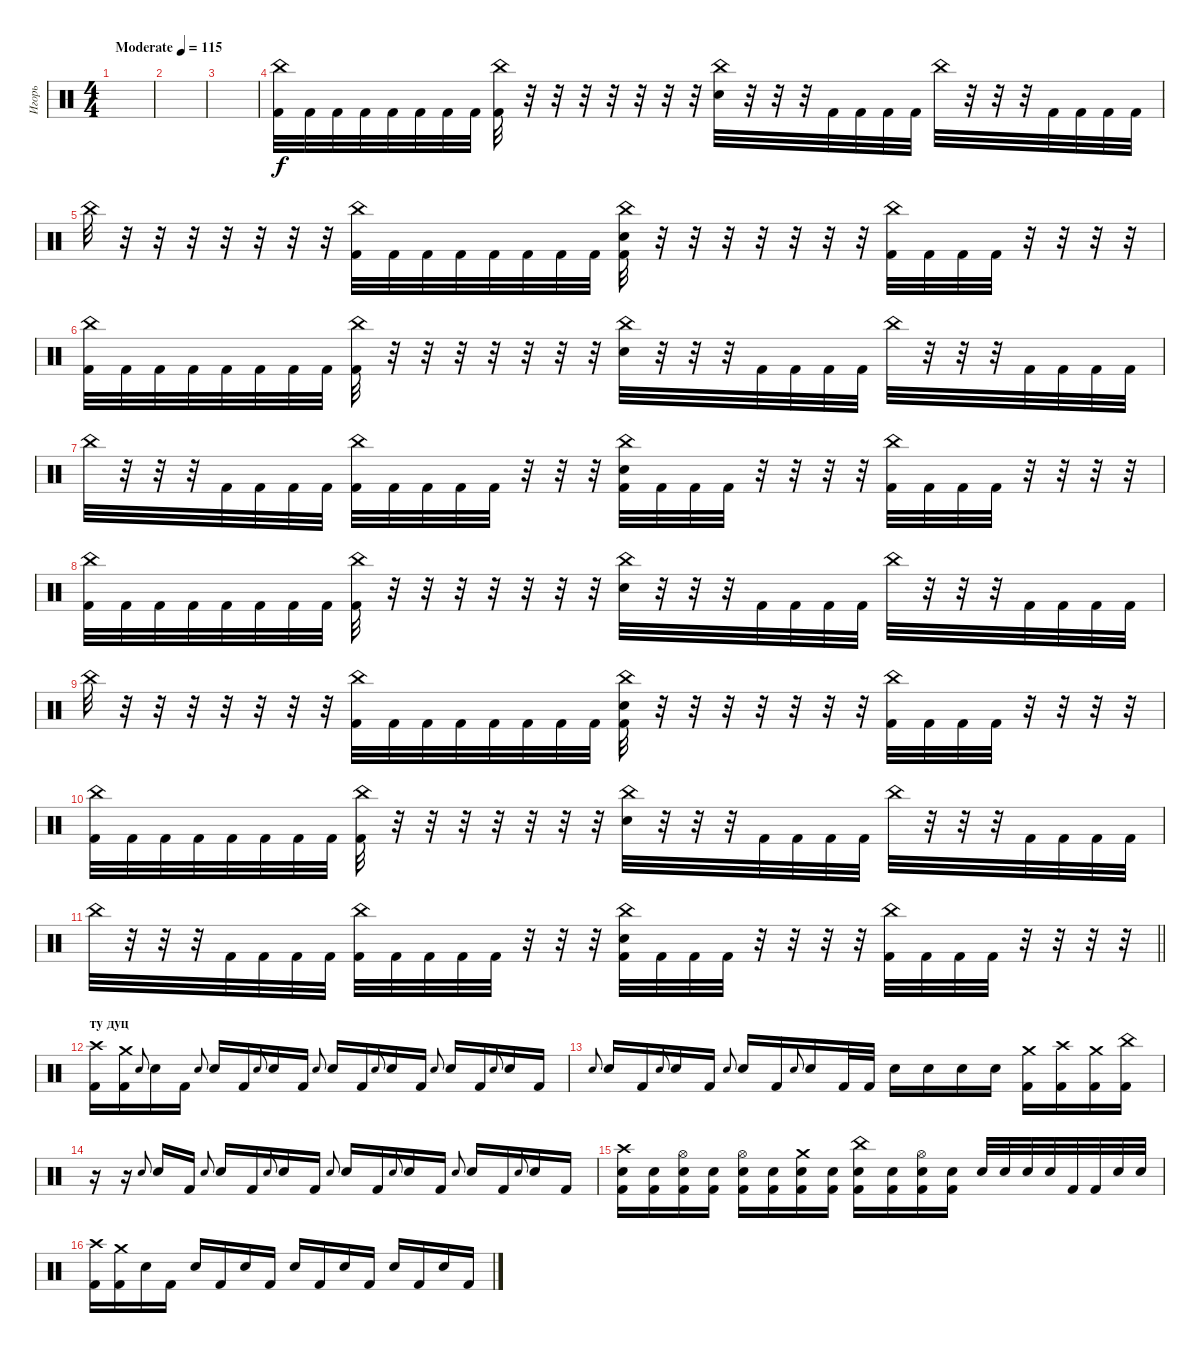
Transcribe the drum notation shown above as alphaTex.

\track ("Игорь" "Игорь") {instrument percussion}
\staff {score}
\articulation defaults
\ts (4 4)
\tempo (115 "Moderate")
\clef neutral
\ks c
|
|
|
("China (hit)" "Kick (hit) 2").32 "Kick (hit) 2".32 "Kick (hit) 2".32 "Kick (hit) 2".32 "Kick (hit) 2".32 "Kick (hit) 2".32 "Kick (hit) 2".32 "Kick (hit) 2".32 ("China (hit)" "Kick (hit) 2").32 r.32 r.32 r.32 r.32 r.32 r.32 r.32 ("China (hit)" "Electric Snare (hit)").32 r.32 r.32 r.32 "Kick (hit) 2".32 "Kick (hit) 2".32 "Kick (hit) 2".32 "Kick (hit) 2".32 "China (hit)".32 r.32 r.32 r.32 "Kick (hit) 2".32 "Kick (hit) 2".32 "Kick (hit) 2".32 "Kick (hit) 2".32 |
"China (hit)".32 r.32 r.32 r.32 r.32 r.32 r.32 r.32 ("China (hit)" "Kick (hit) 2").32 "Kick (hit) 2".32 "Kick (hit) 2".32 "Kick (hit) 2".32 "Kick (hit) 2".32 "Kick (hit) 2".32 "Kick (hit) 2".32 "Kick (hit) 2".32 ("China (hit)" "Electric Snare (hit)" "Kick (hit) 2").32 r.32 r.32 r.32 r.32 r.32 r.32 r.32 ("China (hit)" "Kick (hit) 2").32 "Kick (hit) 2".32 "Kick (hit) 2".32 "Kick (hit) 2".32 r.32 r.32 r.32 r.32 |
("China (hit)" "Kick (hit) 2").32 "Kick (hit) 2".32 "Kick (hit) 2".32 "Kick (hit) 2".32 "Kick (hit) 2".32 "Kick (hit) 2".32 "Kick (hit) 2".32 "Kick (hit) 2".32 ("China (hit)" "Kick (hit) 2").32 r.32 r.32 r.32 r.32 r.32 r.32 r.32 ("China (hit)" "Electric Snare (hit)").32 r.32 r.32 r.32 "Kick (hit) 2".32 "Kick (hit) 2".32 "Kick (hit) 2".32 "Kick (hit) 2".32 "China (hit)".32 r.32 r.32 r.32 "Kick (hit) 2".32 "Kick (hit) 2".32 "Kick (hit) 2".32 "Kick (hit) 2".32 |
"China (hit)".32 r.32 r.32 r.32 "Kick (hit) 2".32 "Kick (hit) 2".32 "Kick (hit) 2".32 "Kick (hit) 2".32 ("China (hit)" "Kick (hit) 2").32 "Kick (hit) 2".32 "Kick (hit) 2".32 "Kick (hit) 2".32 "Kick (hit) 2".32 r.32 r.32 r.32 ("China (hit)" "Electric Snare (hit)" "Kick (hit) 2").32 "Kick (hit) 2".32 "Kick (hit) 2".32 "Kick (hit) 2".32 r.32 r.32 r.32 r.32 ("China (hit)" "Kick (hit) 2").32 "Kick (hit) 2".32 "Kick (hit) 2".32 "Kick (hit) 2".32 r.32 r.32 r.32 r.32 |
("China (hit)" "Kick (hit) 2").32 "Kick (hit) 2".32 "Kick (hit) 2".32 "Kick (hit) 2".32 "Kick (hit) 2".32 "Kick (hit) 2".32 "Kick (hit) 2".32 "Kick (hit) 2".32 ("China (hit)" "Kick (hit) 2").32 r.32 r.32 r.32 r.32 r.32 r.32 r.32 ("China (hit)" "Electric Snare (hit)").32 r.32 r.32 r.32 "Kick (hit) 2".32 "Kick (hit) 2".32 "Kick (hit) 2".32 "Kick (hit) 2".32 "China (hit)".32 r.32 r.32 r.32 "Kick (hit) 2".32 "Kick (hit) 2".32 "Kick (hit) 2".32 "Kick (hit) 2".32 |
"China (hit)".32 r.32 r.32 r.32 r.32 r.32 r.32 r.32 ("China (hit)" "Kick (hit) 2").32 "Kick (hit) 2".32 "Kick (hit) 2".32 "Kick (hit) 2".32 "Kick (hit) 2".32 "Kick (hit) 2".32 "Kick (hit) 2".32 "Kick (hit) 2".32 ("China (hit)" "Electric Snare (hit)" "Kick (hit) 2").32 r.32 r.32 r.32 r.32 r.32 r.32 r.32 ("China (hit)" "Kick (hit) 2").32 "Kick (hit) 2".32 "Kick (hit) 2".32 "Kick (hit) 2".32 r.32 r.32 r.32 r.32 |
("China (hit)" "Kick (hit) 2").32 "Kick (hit) 2".32 "Kick (hit) 2".32 "Kick (hit) 2".32 "Kick (hit) 2".32 "Kick (hit) 2".32 "Kick (hit) 2".32 "Kick (hit) 2".32 ("China (hit)" "Kick (hit) 2").32 r.32 r.32 r.32 r.32 r.32 r.32 r.32 ("China (hit)" "Electric Snare (hit)").32 r.32 r.32 r.32 "Kick (hit) 2".32 "Kick (hit) 2".32 "Kick (hit) 2".32 "Kick (hit) 2".32 "China (hit)".32 r.32 r.32 r.32 "Kick (hit) 2".32 "Kick (hit) 2".32 "Kick (hit) 2".32 "Kick (hit) 2".32 |
\barLineRight lightlight "China (hit)".32
r.32 r.32 r.32 "Kick (hit) 2".32 "Kick (hit) 2".32 "Kick (hit) 2".32 "Kick (hit) 2".32 ("China (hit)" "Kick (hit) 2").32 "Kick (hit) 2".32 "Kick (hit) 2".32 "Kick (hit) 2".32 "Kick (hit) 2".32 r.32 r.32 r.32 ("China (hit)" "Electric Snare (hit)" "Kick (hit) 2").32 "Kick (hit) 2".32 "Kick (hit) 2".32 "Kick (hit) 2".32 r.32 r.32 r.32 r.32 ("China (hit)" "Kick (hit) 2").32 "Kick (hit) 2".32 "Kick (hit) 2".32 "Kick (hit) 2".32 r.32 r.32 r.32 r.32 |
\section ("" "ту дуц")
("Crash high (hit)" "Kick (hit) 2").16 ("Crash medium (hit)" "Kick (hit) 2").16 "Electric Snare (hit)".8{gr onbeat} "Electric Snare (hit)".16 "Kick (hit) 2".16 "Electric Snare (hit)".8{gr onbeat} "Electric Snare (hit)".16 "Kick (hit) 2".16 "Electric Snare (hit)".8{gr onbeat} "Electric Snare (hit)".16 "Kick (hit) 2".16 "Electric Snare (hit)".8{gr onbeat} "Electric Snare (hit)".16 "Kick (hit) 2".16 "Electric Snare (hit)".8{gr onbeat} "Electric Snare (hit)".16 "Kick (hit) 2".16 "Electric Snare (hit)".8{gr onbeat} "Electric Snare (hit)".16 "Kick (hit) 2".16 "Electric Snare (hit)".8{gr onbeat} "Electric Snare (hit)".16 "Kick (hit) 2".16 |
"Electric Snare (hit)".8{gr onbeat} "Electric Snare (hit)".16 "Kick (hit) 2".16 "Electric Snare (hit)".8{gr onbeat} "Electric Snare (hit)".16 "Kick (hit) 2".16 "Electric Snare (hit)".8{gr onbeat} "Electric Snare (hit)".16 "Kick (hit) 2".16 "Electric Snare (hit)".8{gr onbeat} "Electric Snare (hit)".16 "Kick (hit) 2".32 "Kick (hit) 2".32 "Electric Snare (hit)".16 "Electric Snare (hit)".16 "Electric Snare (hit)".16 "Electric Snare (hit)".16 ("Crash medium (hit)" "Kick (hit) 2").16 ("Crash high (hit)" "Kick (hit) 2").16 ("Crash medium (hit)" "Kick (hit) 2").16 ("China (hit)" "Kick (hit) 2").16 |
r.16 r.16 "Electric Snare (hit)".8{gr onbeat} "Electric Snare (hit)".16 "Kick (hit) 2".16 "Electric Snare (hit)".8{gr onbeat} "Electric Snare (hit)".16 "Kick (hit) 2".16 "Electric Snare (hit)".8{gr onbeat} "Electric Snare (hit)".16 "Kick (hit) 2".16 "Electric Snare (hit)".8{gr onbeat} "Electric Snare (hit)".16 "Kick (hit) 2".16 "Electric Snare (hit)".8{gr onbeat} "Electric Snare (hit)".16 "Kick (hit) 2".16 "Electric Snare (hit)".8{gr onbeat} "Electric Snare (hit)".16 "Kick (hit) 2".16 "Electric Snare (hit)".8{gr onbeat} "Electric Snare (hit)".16 "Kick (hit) 2".16 |
("Crash high (hit)" "Electric Snare (hit)" "Kick (hit) 2").16 ("Electric Snare (hit)" "Kick (hit) 2").16 ("Hi-Hat (open)" "Electric Snare (hit)" "Kick (hit) 2").16 ("Electric Snare (hit)" "Kick (hit) 2").16 ("Hi-Hat (open)" "Electric Snare (hit)" "Kick (hit) 2").16 ("Electric Snare (hit)" "Kick (hit) 2").16 ("Crash medium (hit)" "Electric Snare (hit)" "Kick (hit) 2").16 ("Electric Snare (hit)" "Kick (hit) 2").16 ("China (hit)" "Electric Snare (hit)" "Kick (hit) 2").16 ("Electric Snare (hit)" "Kick (hit) 2").16 ("Hi-Hat (open)" "Electric Snare (hit)" "Kick (hit) 2").16 ("Electric Snare (hit)" "Kick (hit) 2").16 "Electric Snare (hit)".32 "Electric Snare (hit)".32 "Electric Snare (hit)".32 "Electric Snare (hit)".32 "Kick (hit) 2".32 "Kick (hit) 2".32 "Electric Snare (hit)".32 "Electric Snare (hit)".32 |
("Crash high (hit)" "Kick (hit) 2").16 ("Crash medium (hit)" "Kick (hit) 2").16 "Electric Snare (hit)".16 "Kick (hit) 2".16 "Electric Snare (hit)".16 "Kick (hit) 2".16 "Electric Snare (hit)".16 "Kick (hit) 2".16 "Electric Snare (hit)".16 "Kick (hit) 2".16 "Electric Snare (hit)".16 "Kick (hit) 2".16 "Electric Snare (hit)".16 "Kick (hit) 2".16 "Electric Snare (hit)".16 "Kick (hit) 2".16
